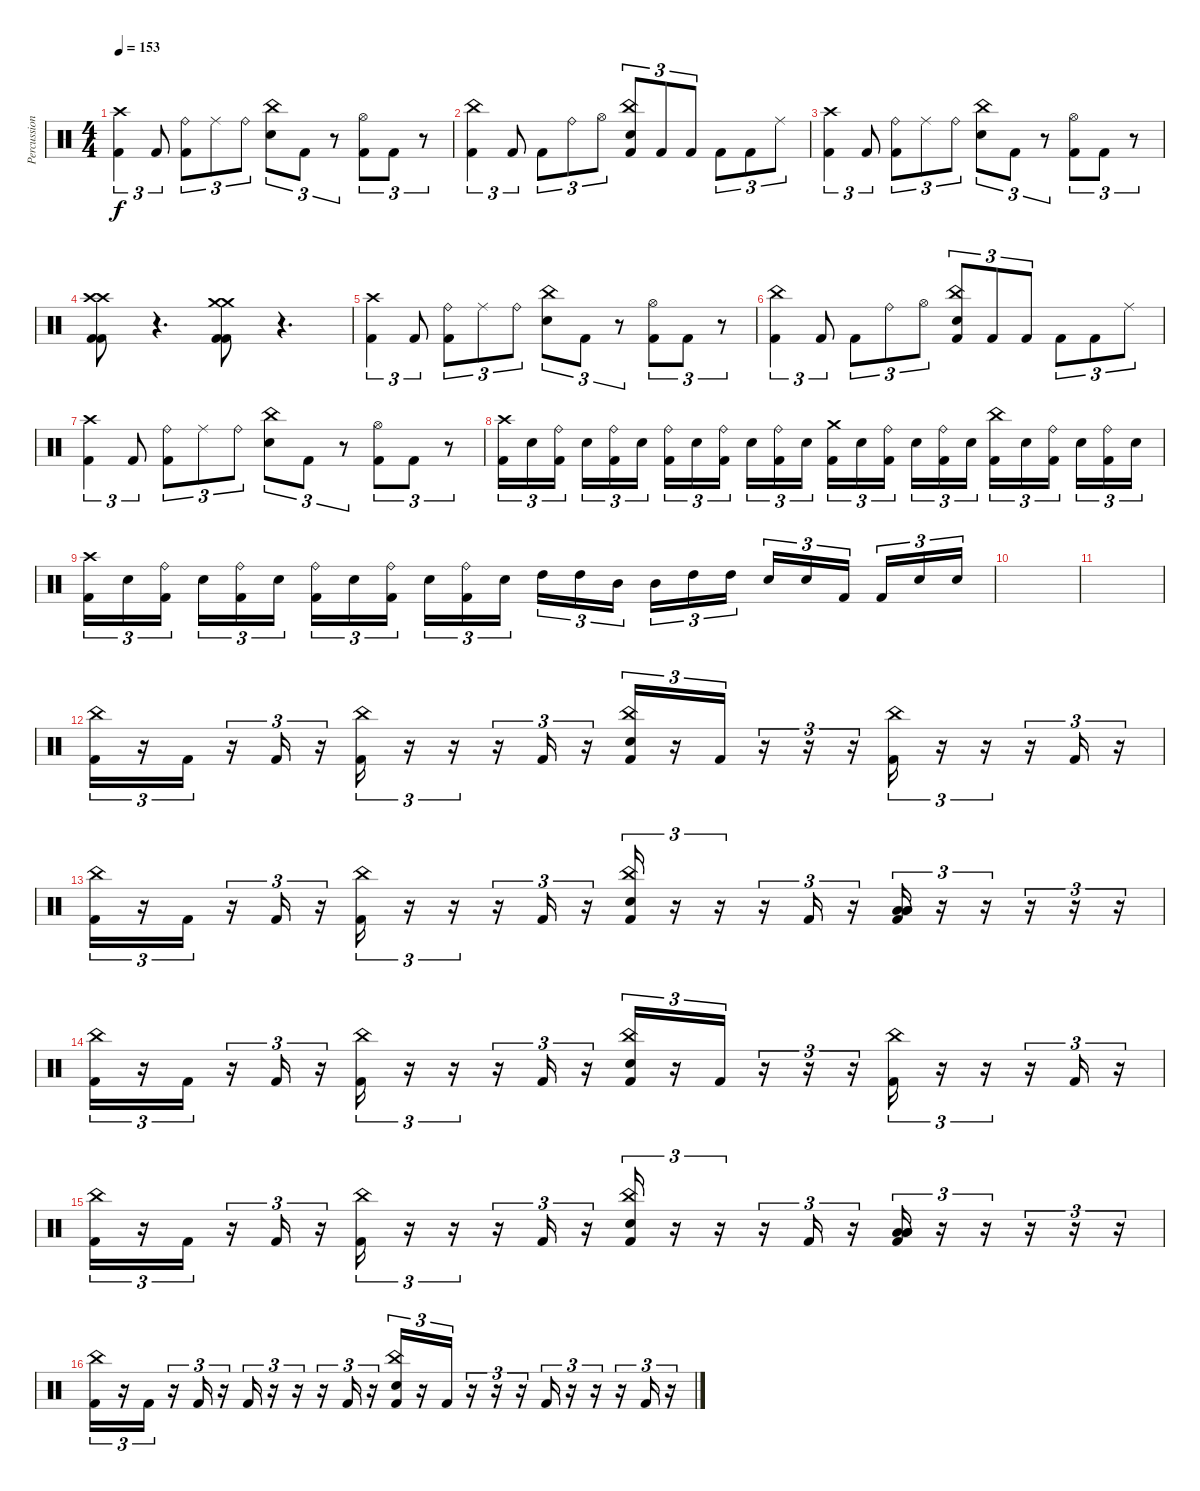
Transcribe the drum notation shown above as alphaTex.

\track ("Percussion" "Percussion") {instrument percussion}
\staff {score}
\articulation defaults
\ts (4 4)
\tempo 153
\clef neutral
\ks c
("Crash high (hit)" "Kick (hit) 2").4{tu (3 2) dy f} "Kick (hit) 2".8{tu (3 2)} ("Ride (bell)" "Kick (hit) 2").8{tu (3 2)} "Ride (middle)".8{tu (3 2)} "Ride (bell)".8{tu (3 2)} ("China (hit)" "Snare (hit) 2").8{tu (3 2)} "Kick (hit) 2".8{tu (3 2)} r.8{tu (3 2)} ("Hi-Hat (open)" "Kick (hit) 2").8{tu (3 2)} "Kick (hit) 2".8{tu (3 2)} r.8{tu (3 2)} |
("China (hit)" "Kick (hit) 2").4{tu (3 2)} "Kick (hit) 2".8{tu (3 2)} "Kick (hit) 2".8{tu (3 2)} "Ride (bell)".8{tu (3 2)} "Hi-Hat (open)".8{tu (3 2)} ("China (hit)" "Snare (hit) 2" "Kick (hit) 2").8{tu (3 2)} "Kick (hit) 2".8{tu (3 2)} "Kick (hit) 2".8{tu (3 2)} "Kick (hit) 2".8{tu (3 2)} "Kick (hit) 2".8{tu (3 2)} "Ride (middle)".8{tu (3 2)} |
("Crash high (hit)" "Kick (hit) 2").4{tu (3 2)} "Kick (hit) 2".8{tu (3 2)} ("Ride (bell)" "Kick (hit) 2").8{tu (3 2)} "Ride (middle)".8{tu (3 2)} "Ride (bell)".8{tu (3 2)} ("China (hit)" "Snare (hit) 2").8{tu (3 2)} "Kick (hit) 2".8{tu (3 2)} r.8{tu (3 2)} ("Hi-Hat (open)" "Kick (hit) 2").8{tu (3 2)} "Kick (hit) 2".8{tu (3 2)} r.8{tu (3 2)} |
("Crash high (hit)" "Crash high (hit)" "Kick (hit) 2" "Kick (hit) 2").8{volume 16} r.4{d volume 0} ("Crash medium (hit)" "Crash medium (hit)" "Kick (hit) 2" "Kick (hit) 2").8{volume 16} r.4{d volume 0} |
("Crash high (hit)" "Kick (hit) 2").4{tu (3 2) volume 16} "Kick (hit) 2".8{tu (3 2)} ("Ride (bell)" "Kick (hit) 2").8{tu (3 2)} "Ride (middle)".8{tu (3 2)} "Ride (bell)".8{tu (3 2)} ("China (hit)" "Snare (hit) 2").8{tu (3 2)} "Kick (hit) 2".8{tu (3 2)} r.8{tu (3 2)} ("Hi-Hat (open)" "Kick (hit) 2").8{tu (3 2)} "Kick (hit) 2".8{tu (3 2)} r.8{tu (3 2)} |
("China (hit)" "Kick (hit) 2").4{tu (3 2)} "Kick (hit) 2".8{tu (3 2)} "Kick (hit) 2".8{tu (3 2)} "Ride (bell)".8{tu (3 2)} "Hi-Hat (open)".8{tu (3 2)} ("China (hit)" "Snare (hit) 2" "Kick (hit) 2").8{tu (3 2)} "Kick (hit) 2".8{tu (3 2)} "Kick (hit) 2".8{tu (3 2)} "Kick (hit) 2".8{tu (3 2)} "Kick (hit) 2".8{tu (3 2)} "Ride (middle)".8{tu (3 2)} |
("Crash high (hit)" "Kick (hit) 2").4{tu (3 2)} "Kick (hit) 2".8{tu (3 2)} ("Ride (bell)" "Kick (hit) 2").8{tu (3 2)} "Ride (middle)".8{tu (3 2)} "Ride (bell)".8{tu (3 2)} ("China (hit)" "Snare (hit) 2").8{tu (3 2)} "Kick (hit) 2".8{tu (3 2)} r.8{tu (3 2)} ("Hi-Hat (open)" "Kick (hit) 2").8{tu (3 2)} "Kick (hit) 2".8{tu (3 2)} r.8{tu (3 2)} |
("Crash high (hit)" "Kick (hit) 2").16{tu (3 2)} "Snare (hit) 2".16{tu (3 2)} ("Ride (bell)" "Kick (hit) 2").16{tu (3 2) beam splitsecondary} "Snare (hit) 2".16{tu (3 2)} ("Ride (bell)" "Kick (hit) 2").16{tu (3 2)} "Snare (hit) 2".16{tu (3 2)} ("Ride (bell)" "Kick (hit) 2").16{tu (3 2)} "Snare (hit) 2".16{tu (3 2)} ("Ride (bell)" "Kick (hit) 2").16{tu (3 2) beam splitsecondary} "Snare (hit) 2".16{tu (3 2)} ("Ride (bell)" "Kick (hit) 2").16{tu (3 2)} "Snare (hit) 2".16{tu (3 2)} ("Crash medium (hit)" "Kick (hit) 2").16{tu (3 2)} "Snare (hit) 2".16{tu (3 2)} ("Ride (bell)" "Kick (hit) 2").16{tu (3 2) beam splitsecondary} "Snare (hit) 2".16{tu (3 2)} ("Ride (bell)" "Kick (hit) 2").16{tu (3 2)} "Snare (hit) 2".16{tu (3 2)} ("China (hit)" "Kick (hit) 2").16{tu (3 2)} "Snare (hit) 2".16{tu (3 2)} ("Ride (bell)" "Kick (hit) 2").16{tu (3 2) beam splitsecondary} "Snare (hit) 2".16{tu (3 2)} ("Ride (bell)" "Kick (hit) 2").16{tu (3 2)} "Snare (hit) 2".16{tu (3 2)} |
("Crash high (hit)" "Kick (hit) 2").16{tu (3 2)} "Snare (hit) 2".16{tu (3 2)} ("Ride (bell)" "Kick (hit) 2").16{tu (3 2) beam splitsecondary} "Snare (hit) 2".16{tu (3 2)} ("Ride (bell)" "Kick (hit) 2").16{tu (3 2)} "Snare (hit) 2".16{tu (3 2)} ("Ride (bell)" "Kick (hit) 2").16{tu (3 2)} "Snare (hit) 2".16{tu (3 2)} ("Ride (bell)" "Kick (hit) 2").16{tu (3 2) beam splitsecondary} "Snare (hit) 2".16{tu (3 2)} ("Ride (bell)" "Kick (hit) 2").16{tu (3 2)} "Snare (hit) 2".16{tu (3 2)} "High Tom (hit)".16{tu (3 2)} "High Tom (hit)".16{tu (3 2)} "Mid Tom (hit)".16{tu (3 2) beam splitsecondary} "Mid Tom (hit)".16{tu (3 2)} "High Tom (hit)".16{tu (3 2)} "High Tom (hit)".16{tu (3 2)} "Electric Snare (hit)".16{tu (3 2)} "Electric Snare (hit)".16{tu (3 2)} "Kick (hit) 2".16{tu (3 2) beam splitsecondary} "Kick (hit) 2".16{tu (3 2)} "Electric Snare (hit)".16{tu (3 2)} "Electric Snare (hit)".16{tu (3 2)} |
|
|
("China (hit)" "Kick (hit) 2").16{tu (3 2)} r.16{tu (3 2)} "Kick (hit) 2".16{tu (3 2)} r.16{tu (3 2)} "Kick (hit) 2".16{tu (3 2)} r.16{tu (3 2)} ("China (hit)" "Kick (hit) 2").16{tu (3 2)} r.16{tu (3 2)} r.16{tu (3 2)} r.16{tu (3 2)} "Kick (hit) 2".16{tu (3 2)} r.16{tu (3 2)} ("China (hit)" "Electric Snare (hit)" "Kick (hit) 2").16{tu (3 2)} r.16{tu (3 2)} "Kick (hit) 2".16{tu (3 2)} r.16{tu (3 2)} r.16{tu (3 2)} r.16{tu (3 2)} ("China (hit)" "Kick (hit) 2").16{tu (3 2)} r.16{tu (3 2)} r.16{tu (3 2)} r.16{tu (3 2)} "Kick (hit) 2".16{tu (3 2)} r.16{tu (3 2)} |
("China (hit)" "Kick (hit) 2").16{tu (3 2)} r.16{tu (3 2)} "Kick (hit) 2".16{tu (3 2)} r.16{tu (3 2)} "Kick (hit) 2".16{tu (3 2)} r.16{tu (3 2)} ("China (hit)" "Kick (hit) 2").16{tu (3 2)} r.16{tu (3 2)} r.16{tu (3 2)} r.16{tu (3 2)} "Kick (hit) 2".16{tu (3 2)} r.16{tu (3 2)} ("China (hit)" "Electric Snare (hit)" "Kick (hit) 2").16{tu (3 2)} r.16{tu (3 2)} r.16{tu (3 2)} r.16{tu (3 2)} "Kick (hit) 2".16{tu (3 2)} r.16{tu (3 2)} ("Low Floor Tom (hit)" "Low Tom (hit)" "Low Floor Tom (hit)" "Kick (hit) 2").16{tu (3 2)} r.16{tu (3 2)} r.16{tu (3 2)} r.16{tu (3 2)} r.16{tu (3 2)} r.16{tu (3 2)} |
("China (hit)" "Kick (hit) 2").16{tu (3 2)} r.16{tu (3 2)} "Kick (hit) 2".16{tu (3 2)} r.16{tu (3 2)} "Kick (hit) 2".16{tu (3 2)} r.16{tu (3 2)} ("China (hit)" "Kick (hit) 2").16{tu (3 2)} r.16{tu (3 2)} r.16{tu (3 2)} r.16{tu (3 2)} "Kick (hit) 2".16{tu (3 2)} r.16{tu (3 2)} ("China (hit)" "Electric Snare (hit)" "Kick (hit) 2").16{tu (3 2)} r.16{tu (3 2)} "Kick (hit) 2".16{tu (3 2)} r.16{tu (3 2)} r.16{tu (3 2)} r.16{tu (3 2)} ("China (hit)" "Kick (hit) 2").16{tu (3 2)} r.16{tu (3 2)} r.16{tu (3 2)} r.16{tu (3 2)} "Kick (hit) 2".16{tu (3 2)} r.16{tu (3 2)} |
("China (hit)" "Kick (hit) 2").16{tu (3 2)} r.16{tu (3 2)} "Kick (hit) 2".16{tu (3 2)} r.16{tu (3 2)} "Kick (hit) 2".16{tu (3 2)} r.16{tu (3 2)} ("China (hit)" "Kick (hit) 2").16{tu (3 2)} r.16{tu (3 2)} r.16{tu (3 2)} r.16{tu (3 2)} "Kick (hit) 2".16{tu (3 2)} r.16{tu (3 2)} ("China (hit)" "Electric Snare (hit)" "Kick (hit) 2").16{tu (3 2)} r.16{tu (3 2)} r.16{tu (3 2)} r.16{tu (3 2)} "Kick (hit) 2".16{tu (3 2)} r.16{tu (3 2)} ("Low Floor Tom (hit)" "Low Tom (hit)" "Low Floor Tom (hit)" "Kick (hit) 2").16{tu (3 2)} r.16{tu (3 2)} r.16{tu (3 2)} r.16{tu (3 2)} r.16{tu (3 2)} r.16{tu (3 2)} |
("China (hit)" "Kick (hit) 2").16{tu (3 2)} r.16{tu (3 2)} "Kick (hit) 2".16{tu (3 2)} r.16{tu (3 2)} "Kick (hit) 2".16{tu (3 2)} r.16{tu (3 2)} "Kick (hit) 2".16{tu (3 2)} r.16{tu (3 2)} r.16{tu (3 2)} r.16{tu (3 2)} "Kick (hit) 2".16{tu (3 2)} r.16{tu (3 2)} ("China (hit)" "Electric Snare (hit)" "Kick (hit) 2").16{tu (3 2)} r.16{tu (3 2)} "Kick (hit) 2".16{tu (3 2)} r.16{tu (3 2)} r.16{tu (3 2)} r.16{tu (3 2)} "Kick (hit) 2".16{tu (3 2)} r.16{tu (3 2)} r.16{tu (3 2)} r.16{tu (3 2)} "Kick (hit) 2".16{tu (3 2)} r.16{tu (3 2)}
